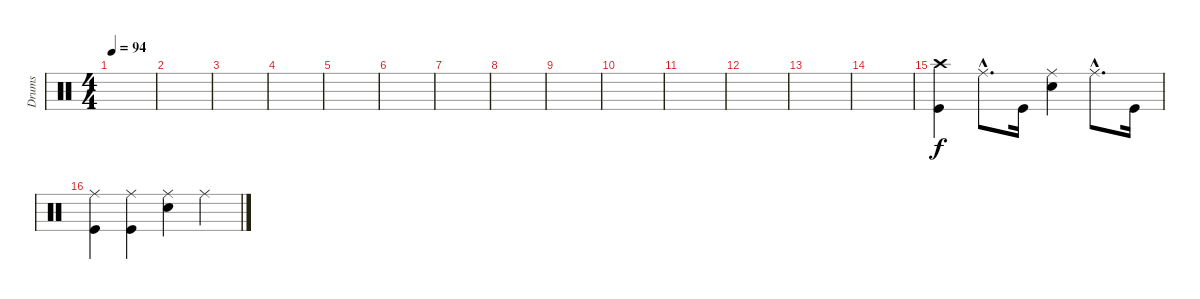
\track ("Drums" "Drums") {instrument percussion}
\staff {score}
\articulation defaults
\ts (4 4)
\tempo 94
\clef neutral
\ks c
|
|
|
|
|
|
|
|
|
|
|
|
|
|
("Crash high (hit)" "Kick (hit)").4 "Ride (middle)"{hac}.8{d} "Kick (hit)".16 ("Ride (middle)" "Snare (hit) 2").4 "Ride (middle)"{hac}.8{d} "Kick (hit)".16 |
("Ride (middle)" "Kick (hit)").4 ("Ride (middle)" "Kick (hit)").4 ("Ride (middle)" "Snare (hit) 2").4 "Ride (middle)".4
